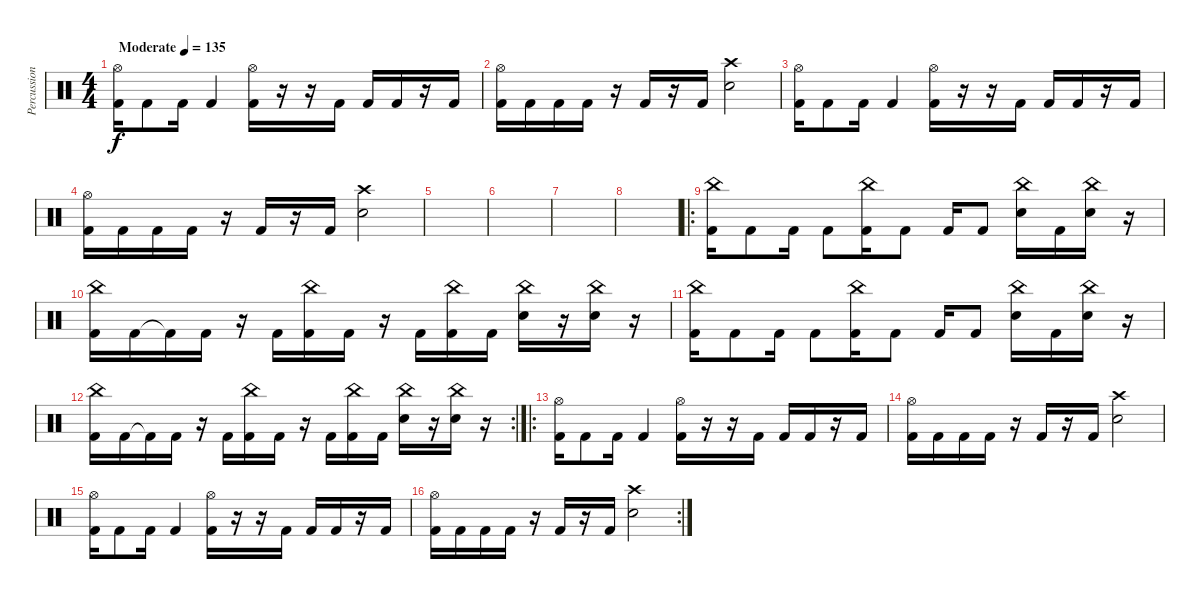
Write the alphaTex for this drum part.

\track ("Percussion" "Percussion") {instrument percussion}
\staff {score}
\articulation defaults
\ts (4 4)
\tempo (135 "Moderate")
\clef neutral
\ks c
("Kick (hit) 2" "Hi-Hat (open)").16{dy f} "Kick (hit) 2".8 "Kick (hit) 2".16 "Kick (hit) 2".4 ("Kick (hit) 2" "Hi-Hat (open)").16 r.16 r.16 "Kick (hit) 2".16 "Kick (hit) 2".16 "Kick (hit) 2".16 r.16 "Kick (hit) 2".16 |
("Kick (hit) 2" "Hi-Hat (open)").16 "Kick (hit) 2".16 "Kick (hit) 2".16 "Kick (hit) 2".16 r.16 "Kick (hit) 2".16 r.16 "Kick (hit) 2".16 ("Snare (hit) 2" "Crash high (hit)").2 |
("Kick (hit) 2" "Hi-Hat (open)").16 "Kick (hit) 2".8 "Kick (hit) 2".16 "Kick (hit) 2".4 ("Kick (hit) 2" "Hi-Hat (open)").16 r.16 r.16 "Kick (hit) 2".16 "Kick (hit) 2".16 "Kick (hit) 2".16 r.16 "Kick (hit) 2".16 |
("Kick (hit) 2" "Hi-Hat (open)").16 "Kick (hit) 2".16 "Kick (hit) 2".16 "Kick (hit) 2".16 r.16 "Kick (hit) 2".16 r.16 "Kick (hit) 2".16 ("Snare (hit) 2" "Crash high (hit)").2 |
|
|
|
|
\ro
("Kick (hit) 2" "China (hit)").16 "Kick (hit) 2".8 "Kick (hit) 2".16 "Kick (hit) 2".8 ("Kick (hit) 2" "China (hit)").16 "Kick (hit) 2".8 "Kick (hit) 2".16 "Kick (hit) 2".8 ("Snare (hit) 2" "China (hit)").16 "Kick (hit) 2".16 ("Snare (hit) 2" "China (hit)").16 r.16 |
("Kick (hit) 2" "China (hit)").16 "Kick (hit) 2".16 "Kick (hit) 2"{t}.16 "Kick (hit) 2".16 r.16 "Kick (hit) 2".16 ("Kick (hit) 2" "China (hit)").16 "Kick (hit) 2".16 r.16 "Kick (hit) 2".16 ("Kick (hit) 2" "China (hit)").16 "Kick (hit) 2".16 ("Snare (hit) 2" "China (hit)").16 r.16 ("Snare (hit) 2" "China (hit)").16 r.16 |
("Kick (hit) 2" "China (hit)").16 "Kick (hit) 2".8 "Kick (hit) 2".16 "Kick (hit) 2".8 ("Kick (hit) 2" "China (hit)").16 "Kick (hit) 2".8 "Kick (hit) 2".16 "Kick (hit) 2".8 ("Snare (hit) 2" "China (hit)").16 "Kick (hit) 2".16 ("Snare (hit) 2" "China (hit)").16 r.16 |
\rc 2
("Kick (hit) 2" "China (hit)").16 "Kick (hit) 2".16 "Kick (hit) 2"{t}.16 "Kick (hit) 2".16 r.16 "Kick (hit) 2".16 ("Kick (hit) 2" "China (hit)").16 "Kick (hit) 2".16 r.16 "Kick (hit) 2".16 ("Kick (hit) 2" "China (hit)").16 "Kick (hit) 2".16 ("Snare (hit) 2" "China (hit)").16 r.16 ("Snare (hit) 2" "China (hit)").16 r.16 |
\ro
("Kick (hit) 2" "Hi-Hat (open)").16 "Kick (hit) 2".8 "Kick (hit) 2".16 "Kick (hit) 2".4 ("Kick (hit) 2" "Hi-Hat (open)").16 r.16 r.16 "Kick (hit) 2".16 "Kick (hit) 2".16 "Kick (hit) 2".16 r.16 "Kick (hit) 2".16 |
("Kick (hit) 2" "Hi-Hat (open)").16 "Kick (hit) 2".16 "Kick (hit) 2".16 "Kick (hit) 2".16 r.16 "Kick (hit) 2".16 r.16 "Kick (hit) 2".16 ("Snare (hit) 2" "Crash high (hit)").2 |
("Kick (hit) 2" "Hi-Hat (open)").16 "Kick (hit) 2".8 "Kick (hit) 2".16 "Kick (hit) 2".4 ("Kick (hit) 2" "Hi-Hat (open)").16 r.16 r.16 "Kick (hit) 2".16 "Kick (hit) 2".16 "Kick (hit) 2".16 r.16 "Kick (hit) 2".16 |
\rc 2
("Kick (hit) 2" "Hi-Hat (open)").16 "Kick (hit) 2".16 "Kick (hit) 2".16 "Kick (hit) 2".16 r.16 "Kick (hit) 2".16 r.16 "Kick (hit) 2".16 ("Snare (hit) 2" "Crash high (hit)").2
